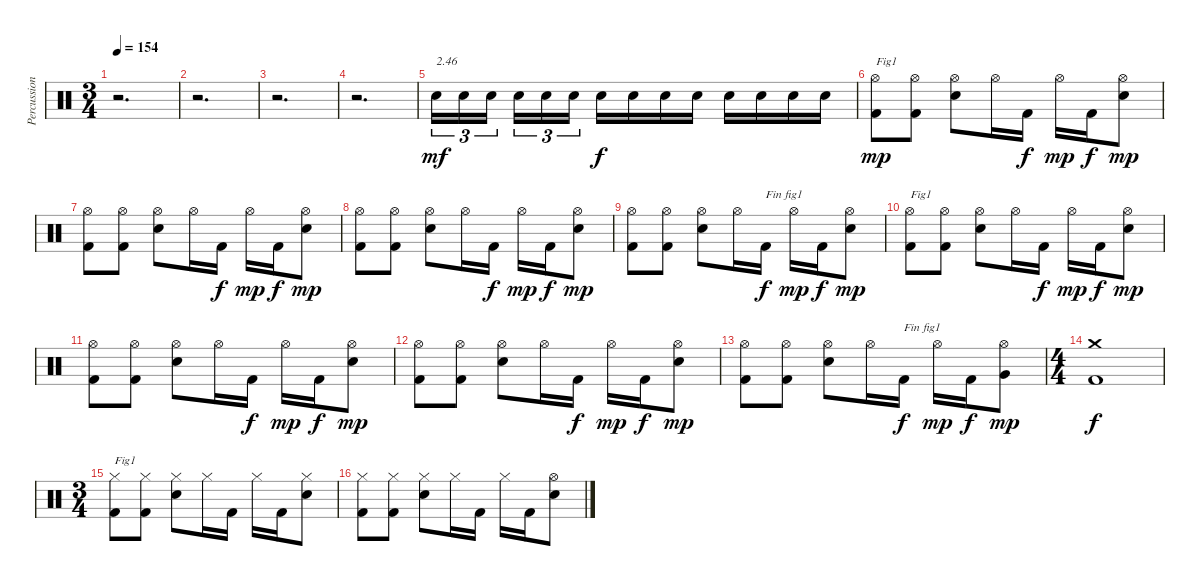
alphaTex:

\track ("Percussions" "Percussion") {instrument percussion}
\staff {score}
\articulation defaults
\ts (3 4)
\tempo 154
\clef neutral
\ks c
r.2{d dy p} |
r.2{d} |
r.2{d} |
r.2{d} |
"Electric Snare (hit)".16{tu (3 2) txt "2.46" dy mf} "Electric Snare (hit)".16{tu (3 2)} "Electric Snare (hit)".16{tu (3 2)} "Electric Snare (hit)".16{tu (3 2)} "Electric Snare (hit)".16{tu (3 2)} "Electric Snare (hit)".16{tu (3 2)} "Electric Snare (hit)".16{dy f} "Electric Snare (hit)".16 "Electric Snare (hit)".16 "Electric Snare (hit)".16 "Electric Snare (hit)".16 "Electric Snare (hit)".16 "Electric Snare (hit)".16 "Electric Snare (hit)".16 |
("Kick (hit) 2" "Hi-Hat (open)").8{txt "Fig1" dy mp} ("Kick (hit) 2" "Hi-Hat (open)").8 ("Electric Snare (hit)" "Hi-Hat (open)").8 "Hi-Hat (open)".16 "Kick (hit) 2".16{dy f} "Hi-Hat (open)".16{dy mp} "Kick (hit) 2".16{dy f} ("Electric Snare (hit)" "Hi-Hat (open)").8{dy mp} |
("Kick (hit) 2" "Hi-Hat (open)").8 ("Kick (hit) 2" "Hi-Hat (open)").8 ("Electric Snare (hit)" "Hi-Hat (open)").8 "Hi-Hat (open)".16 "Kick (hit) 2".16{dy f} "Hi-Hat (open)".16{dy mp} "Kick (hit) 2".16{dy f} ("Electric Snare (hit)" "Hi-Hat (open)").8{dy mp} |
("Kick (hit) 2" "Hi-Hat (open)").8 ("Kick (hit) 2" "Hi-Hat (open)").8 ("Electric Snare (hit)" "Hi-Hat (open)").8 "Hi-Hat (open)".16 "Kick (hit) 2".16{dy f} "Hi-Hat (open)".16{dy mp} "Kick (hit) 2".16{dy f} ("Electric Snare (hit)" "Hi-Hat (open)").8{dy mp} |
("Kick (hit) 2" "Hi-Hat (open)").8 ("Kick (hit) 2" "Hi-Hat (open)").8 ("Electric Snare (hit)" "Hi-Hat (open)").8 "Hi-Hat (open)".16 "Kick (hit) 2".16{txt "Fin fig1" dy f} "Hi-Hat (open)".16{dy mp} "Kick (hit) 2".16{dy f} ("Electric Snare (hit)" "Hi-Hat (open)").8{dy mp} |
("Kick (hit) 2" "Hi-Hat (open)").8{txt "Fig1"} ("Kick (hit) 2" "Hi-Hat (open)").8 ("Electric Snare (hit)" "Hi-Hat (open)").8 "Hi-Hat (open)".16 "Kick (hit) 2".16{dy f} "Hi-Hat (open)".16{dy mp} "Kick (hit) 2".16{dy f} ("Electric Snare (hit)" "Hi-Hat (open)").8{dy mp} |
("Kick (hit) 2" "Hi-Hat (open)").8 ("Kick (hit) 2" "Hi-Hat (open)").8 ("Electric Snare (hit)" "Hi-Hat (open)").8 "Hi-Hat (open)".16 "Kick (hit) 2".16{dy f} "Hi-Hat (open)".16{dy mp} "Kick (hit) 2".16{dy f} ("Electric Snare (hit)" "Hi-Hat (open)").8{dy mp} |
("Kick (hit) 2" "Hi-Hat (open)").8 ("Kick (hit) 2" "Hi-Hat (open)").8 ("Electric Snare (hit)" "Hi-Hat (open)").8 "Hi-Hat (open)".16 "Kick (hit) 2".16{dy f} "Hi-Hat (open)".16{dy mp} "Kick (hit) 2".16{dy f} ("Electric Snare (hit)" "Hi-Hat (open)").8{dy mp} |
("Kick (hit) 2" "Hi-Hat (open)").8 ("Kick (hit) 2" "Hi-Hat (open)").8 ("Electric Snare (hit)" "Hi-Hat (open)").8 "Hi-Hat (open)".16 "Kick (hit) 2".16{txt "Fin fig1" dy f} "Hi-Hat (open)".16{dy mp} "Kick (hit) 2".16{dy f} ("Very Low Tom (hit)" "Hi-Hat (open)").8{dy mp} |
\ts (4 4)
("Kick (hit) 2" "Crash medium (hit)").1{dy f} |
\ts (3 4)
("Kick (hit) 2" "Hi-Hat (closed)").8{txt "Fig1"} ("Kick (hit) 2" "Hi-Hat (closed)").8 ("Electric Snare (hit)" "Hi-Hat (closed)").8 "Hi-Hat (closed)".16 "Kick (hit) 2".16 "Hi-Hat (closed)".16 "Kick (hit) 2".16 ("Electric Snare (hit)" "Hi-Hat (closed)").8 |
("Kick (hit) 2" "Hi-Hat (closed)").8 ("Kick (hit) 2" "Hi-Hat (closed)").8 ("Electric Snare (hit)" "Hi-Hat (closed)").8 "Hi-Hat (closed)".16 "Kick (hit) 2".16 "Hi-Hat (closed)".16 "Kick (hit) 2".16 ("Electric Snare (hit)" "Hi-Hat (open)").8
